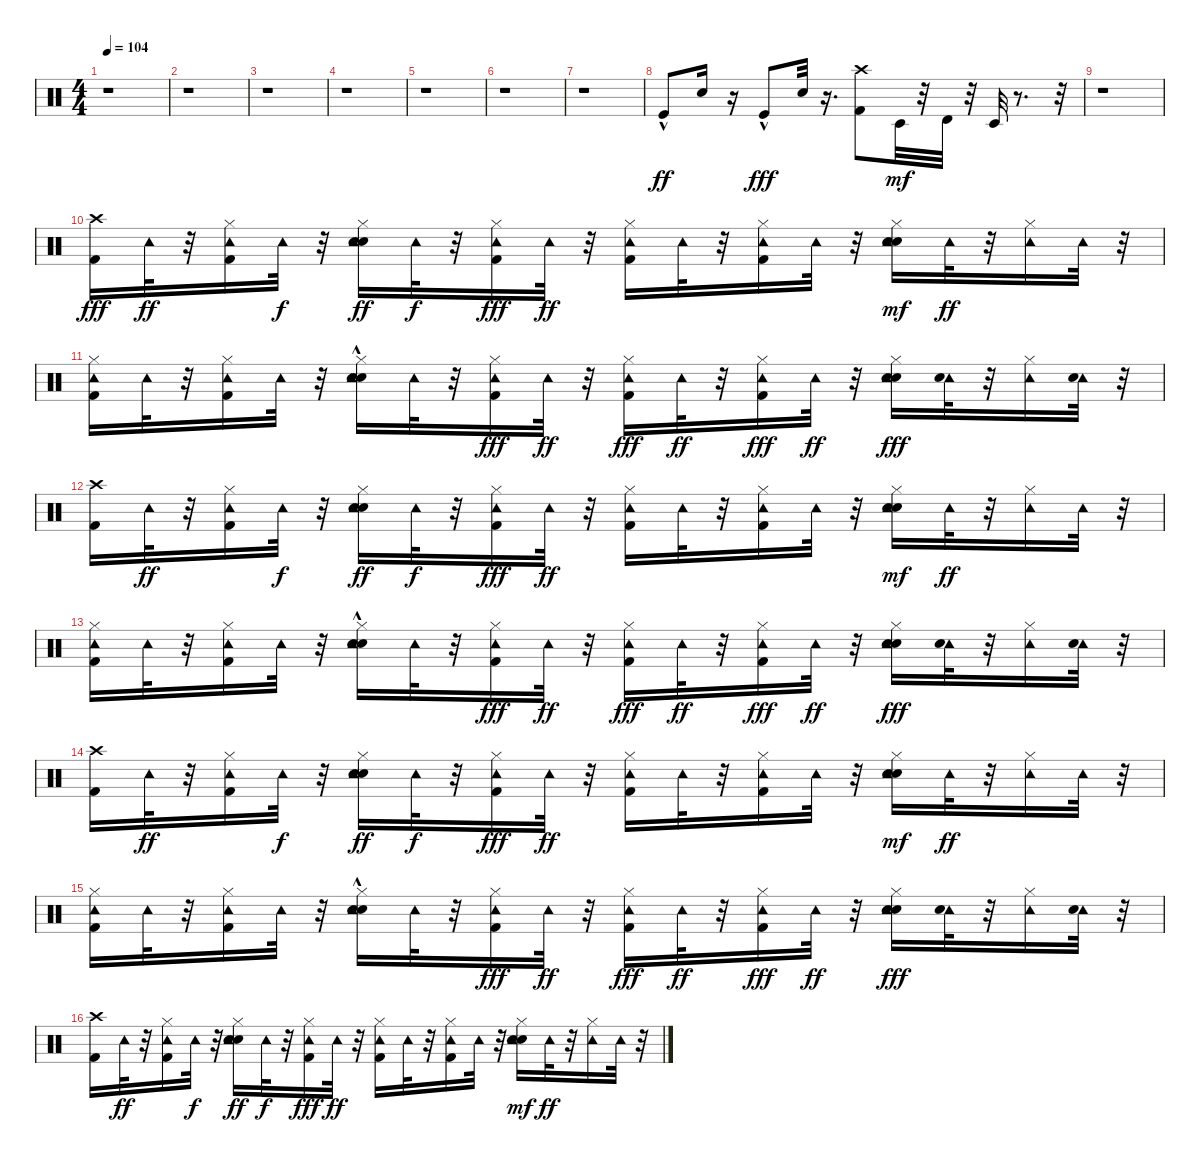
\track "" {instrument percussion}
\staff {score}
\articulation defaults
\ts (4 4)
\tempo 104
\clef neutral
\ks c
r.1{dy fff} |
r.1 |
r.1 |
r.1 |
r.1 |
r.1 |
r.1 |
"Kick (hit)"{hac}.8{dy ff} "Snare (hit) 2".16 r.16 "Kick (hit)"{hac}.8{dy fff} "Snare (hit) 2".32 r.16{d} ("Kick (hit) 2" "Crash high (hit)").8 "Timbale low (hit)".32{dy mf} r.32 "Timbale high (hit)".32 r.32 "Timbale low (hit)".32 r.8{d} r.32 |
r.1 |
("Kick (hit) 2" "Crash high (hit)").16{dy fff} "Tambourine (hit)".32{dy ff} r.32 ("Hi-Hat (closed)" "Kick (hit) 2" "Tambourine (hit)").16 "Tambourine (hit)".32{dy f} r.32 ("Hi-Hat (closed)" "Hand Clap (hit)" "Snare (hit) 2" "Tambourine (hit)").16{dy ff} "Tambourine (hit)".32{dy f} r.32 ("Hi-Hat (closed)" "Kick (hit) 2" "Tambourine (hit)").16{dy fff} "Tambourine (hit)".32{dy ff} r.32 ("Hi-Hat (closed)" "Kick (hit) 2" "Tambourine (hit)").16 "Tambourine (hit)".32 r.32 ("Hi-Hat (closed)" "Kick (hit) 2" "Tambourine (hit)").16 "Tambourine (hit)".32 r.32 ("Hi-Hat (closed)" "Hand Clap (hit)" "Snare (hit) 2" "Tambourine (hit)").16{dy mf} "Tambourine (hit)".32{dy ff} r.32 ("Hi-Hat (closed)" "Tambourine (hit)").16 "Tambourine (hit)".32 r.32 |
("Hi-Hat (closed)" "Kick (hit) 2" "Tambourine (hit)").16 "Tambourine (hit)".32 r.32 ("Hi-Hat (closed)" "Kick (hit) 2" "Tambourine (hit)").16 "Tambourine (hit)".32 r.32 ("Hi-Hat (closed)" "Hand Clap (hit)" "Snare (hit) 2"{hac} "Tambourine (hit)").16 "Tambourine (hit)".32 r.32 ("Hi-Hat (closed)" "Kick (hit) 2" "Tambourine (hit)").16{dy fff} "Tambourine (hit)".32{dy ff} r.32 ("Hi-Hat (closed)" "Kick (hit) 2" "Tambourine (hit)").16{dy fff} "Tambourine (hit)".32{dy ff} r.32 ("Hi-Hat (closed)" "Kick (hit) 2" "Tambourine (hit)").16{dy fff} "Tambourine (hit)".32{dy ff} r.32 ("Hand Clap (hit)" "Hi-Hat (closed)" "Snare (hit) 2" "Tambourine (hit)").16{dy fff} ("Tambourine (hit)" "Electric Snare (hit)").32 r.32 ("Hi-Hat (closed)" "Tambourine (hit)").16 ("Tambourine (hit)" "Electric Snare (hit)").32 r.32 |
("Kick (hit) 2" "Crash high (hit)").16 "Tambourine (hit)".32{dy ff} r.32 ("Hi-Hat (closed)" "Kick (hit) 2" "Tambourine (hit)").16 "Tambourine (hit)".32{dy f} r.32 ("Hi-Hat (closed)" "Hand Clap (hit)" "Snare (hit) 2" "Tambourine (hit)").16{dy ff} "Tambourine (hit)".32{dy f} r.32 ("Hi-Hat (closed)" "Kick (hit) 2" "Tambourine (hit)").16{dy fff} "Tambourine (hit)".32{dy ff} r.32 ("Hi-Hat (closed)" "Kick (hit) 2" "Tambourine (hit)").16 "Tambourine (hit)".32 r.32 ("Hi-Hat (closed)" "Kick (hit) 2" "Tambourine (hit)").16 "Tambourine (hit)".32 r.32 ("Hi-Hat (closed)" "Hand Clap (hit)" "Snare (hit) 2" "Tambourine (hit)").16{dy mf} "Tambourine (hit)".32{dy ff} r.32 ("Hi-Hat (closed)" "Tambourine (hit)").16 "Tambourine (hit)".32 r.32 |
("Hi-Hat (closed)" "Kick (hit) 2" "Tambourine (hit)").16 "Tambourine (hit)".32 r.32 ("Hi-Hat (closed)" "Kick (hit) 2" "Tambourine (hit)").16 "Tambourine (hit)".32 r.32 ("Hi-Hat (closed)" "Hand Clap (hit)" "Snare (hit) 2"{hac} "Tambourine (hit)").16 "Tambourine (hit)".32 r.32 ("Hi-Hat (closed)" "Kick (hit) 2" "Tambourine (hit)").16{dy fff} "Tambourine (hit)".32{dy ff} r.32 ("Hi-Hat (closed)" "Kick (hit) 2" "Tambourine (hit)").16{dy fff} "Tambourine (hit)".32{dy ff} r.32 ("Hi-Hat (closed)" "Kick (hit) 2" "Tambourine (hit)").16{dy fff} "Tambourine (hit)".32{dy ff} r.32 ("Hand Clap (hit)" "Hi-Hat (closed)" "Snare (hit) 2" "Tambourine (hit)").16{dy fff} ("Tambourine (hit)" "Electric Snare (hit)").32 r.32 ("Hi-Hat (closed)" "Tambourine (hit)").16 ("Tambourine (hit)" "Electric Snare (hit)").32 r.32 |
("Kick (hit) 2" "Crash high (hit)").16 "Tambourine (hit)".32{dy ff} r.32 ("Hi-Hat (closed)" "Kick (hit) 2" "Tambourine (hit)").16 "Tambourine (hit)".32{dy f} r.32 ("Hi-Hat (closed)" "Hand Clap (hit)" "Snare (hit) 2" "Tambourine (hit)").16{dy ff} "Tambourine (hit)".32{dy f} r.32 ("Hi-Hat (closed)" "Kick (hit) 2" "Tambourine (hit)").16{dy fff} "Tambourine (hit)".32{dy ff} r.32 ("Hi-Hat (closed)" "Kick (hit) 2" "Tambourine (hit)").16 "Tambourine (hit)".32 r.32 ("Hi-Hat (closed)" "Kick (hit) 2" "Tambourine (hit)").16 "Tambourine (hit)".32 r.32 ("Hi-Hat (closed)" "Hand Clap (hit)" "Snare (hit) 2" "Tambourine (hit)").16{dy mf} "Tambourine (hit)".32{dy ff} r.32 ("Hi-Hat (closed)" "Tambourine (hit)").16 "Tambourine (hit)".32 r.32 |
("Hi-Hat (closed)" "Kick (hit) 2" "Tambourine (hit)").16 "Tambourine (hit)".32 r.32 ("Hi-Hat (closed)" "Kick (hit) 2" "Tambourine (hit)").16 "Tambourine (hit)".32 r.32 ("Hi-Hat (closed)" "Hand Clap (hit)" "Snare (hit) 2"{hac} "Tambourine (hit)").16 "Tambourine (hit)".32 r.32 ("Hi-Hat (closed)" "Kick (hit) 2" "Tambourine (hit)").16{dy fff} "Tambourine (hit)".32{dy ff} r.32 ("Hi-Hat (closed)" "Kick (hit) 2" "Tambourine (hit)").16{dy fff} "Tambourine (hit)".32{dy ff} r.32 ("Hi-Hat (closed)" "Kick (hit) 2" "Tambourine (hit)").16{dy fff} "Tambourine (hit)".32{dy ff} r.32 ("Hand Clap (hit)" "Hi-Hat (closed)" "Snare (hit) 2" "Tambourine (hit)").16{dy fff} ("Tambourine (hit)" "Electric Snare (hit)").32 r.32 ("Hi-Hat (closed)" "Tambourine (hit)").16 ("Tambourine (hit)" "Electric Snare (hit)").32 r.32 |
("Kick (hit) 2" "Crash high (hit)").16 "Tambourine (hit)".32{dy ff} r.32 ("Hi-Hat (closed)" "Kick (hit) 2" "Tambourine (hit)").16 "Tambourine (hit)".32{dy f} r.32 ("Hi-Hat (closed)" "Hand Clap (hit)" "Snare (hit) 2" "Tambourine (hit)").16{dy ff} "Tambourine (hit)".32{dy f} r.32 ("Hi-Hat (closed)" "Kick (hit) 2" "Tambourine (hit)").16{dy fff} "Tambourine (hit)".32{dy ff} r.32 ("Hi-Hat (closed)" "Kick (hit) 2" "Tambourine (hit)").16 "Tambourine (hit)".32 r.32 ("Hi-Hat (closed)" "Kick (hit) 2" "Tambourine (hit)").16 "Tambourine (hit)".32 r.32 ("Hi-Hat (closed)" "Hand Clap (hit)" "Snare (hit) 2" "Tambourine (hit)").16{dy mf} "Tambourine (hit)".32{dy ff} r.32 ("Hi-Hat (closed)" "Tambourine (hit)").16 "Tambourine (hit)".32 r.32
